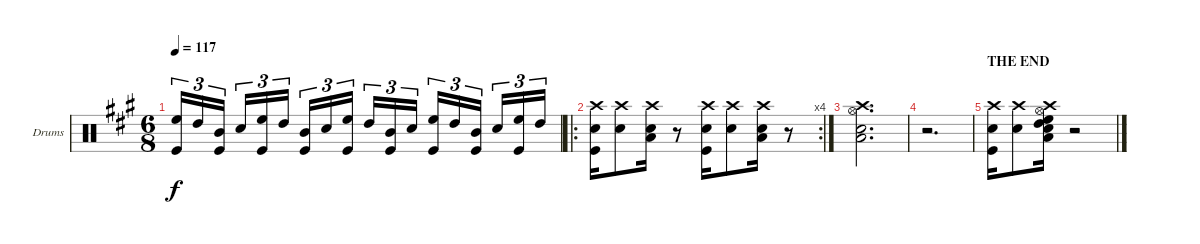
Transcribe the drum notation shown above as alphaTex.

\bracketExtendMode groupsimilarinstruments
\firstSystemTrackNameOrientation horizontal
\otherSystemsTrackNameOrientation horizontal
\track ("Drumkit" "Drums") {instrument percussion}
\staff {score}
\articulation defaults
\ts (6 8)
\tempo 117
\clef neutral
\ks a
("Kick (hit)" "High Floor Tom (hit)").16{tu (3 2) dy f} "High Tom (hit)".16{tu (3 2)} ("Kick (hit)" "Mid Tom (hit)").16{tu (3 2)} "Snare (hit) 2".16{tu (3 2)} ("Kick (hit)" "High Floor Tom (hit)").16{tu (3 2)} "High Tom (hit)".16{tu (3 2)} ("Kick (hit)" "Mid Tom (hit)").16{tu (3 2)} "Snare (hit) 2".16{tu (3 2)} ("Kick (hit)" "High Floor Tom (hit)").16{tu (3 2)} "High Tom (hit)".16{tu (3 2)} ("Kick (hit)" "Mid Tom (hit)").16{tu (3 2)} "Snare (hit) 2".16{tu (3 2)} ("Kick (hit)" "High Floor Tom (hit)").16{tu (3 2)} "High Tom (hit)".16{tu (3 2)} ("Kick (hit)" "Mid Tom (hit)").16{tu (3 2)} "Snare (hit) 2".16{tu (3 2)} ("Kick (hit)" "High Floor Tom (hit)").16{tu (3 2)} "High Tom (hit)".16{tu (3 2)} |
\ro
\rc 4
("Crash high (hit)" "Kick (hit)" "Snare (hit) 2").16 ("Crash high (hit)" "Snare (hit) 2").8 ("Crash high (hit)" "Low Tom (hit)" "Snare (hit) 2").16 r.8 ("Crash high (hit)" "Kick (hit)" "Snare (hit) 2").16 ("Crash high (hit)" "Snare (hit) 2").8 ("Crash high (hit)" "Low Tom (hit)" "Snare (hit) 2").16 r.8 |
("Crash high (hit)" "Hi-Hat (open)" "Snare (hit) 2" "Low Tom (hit)").2{d} |
r.2{d} |
\section ("" "THE END")
("Crash high (hit)" "Kick (hit)" "Snare (hit) 2").16 ("Crash high (hit)" "Snare (hit) 2").8 ("High Floor Tom (hit)" "Crash high (hit)" "Hi-Hat (open)" "Low Tom (hit)" "Snare (hit) 2" "High Tom (hit)").16 r.2
